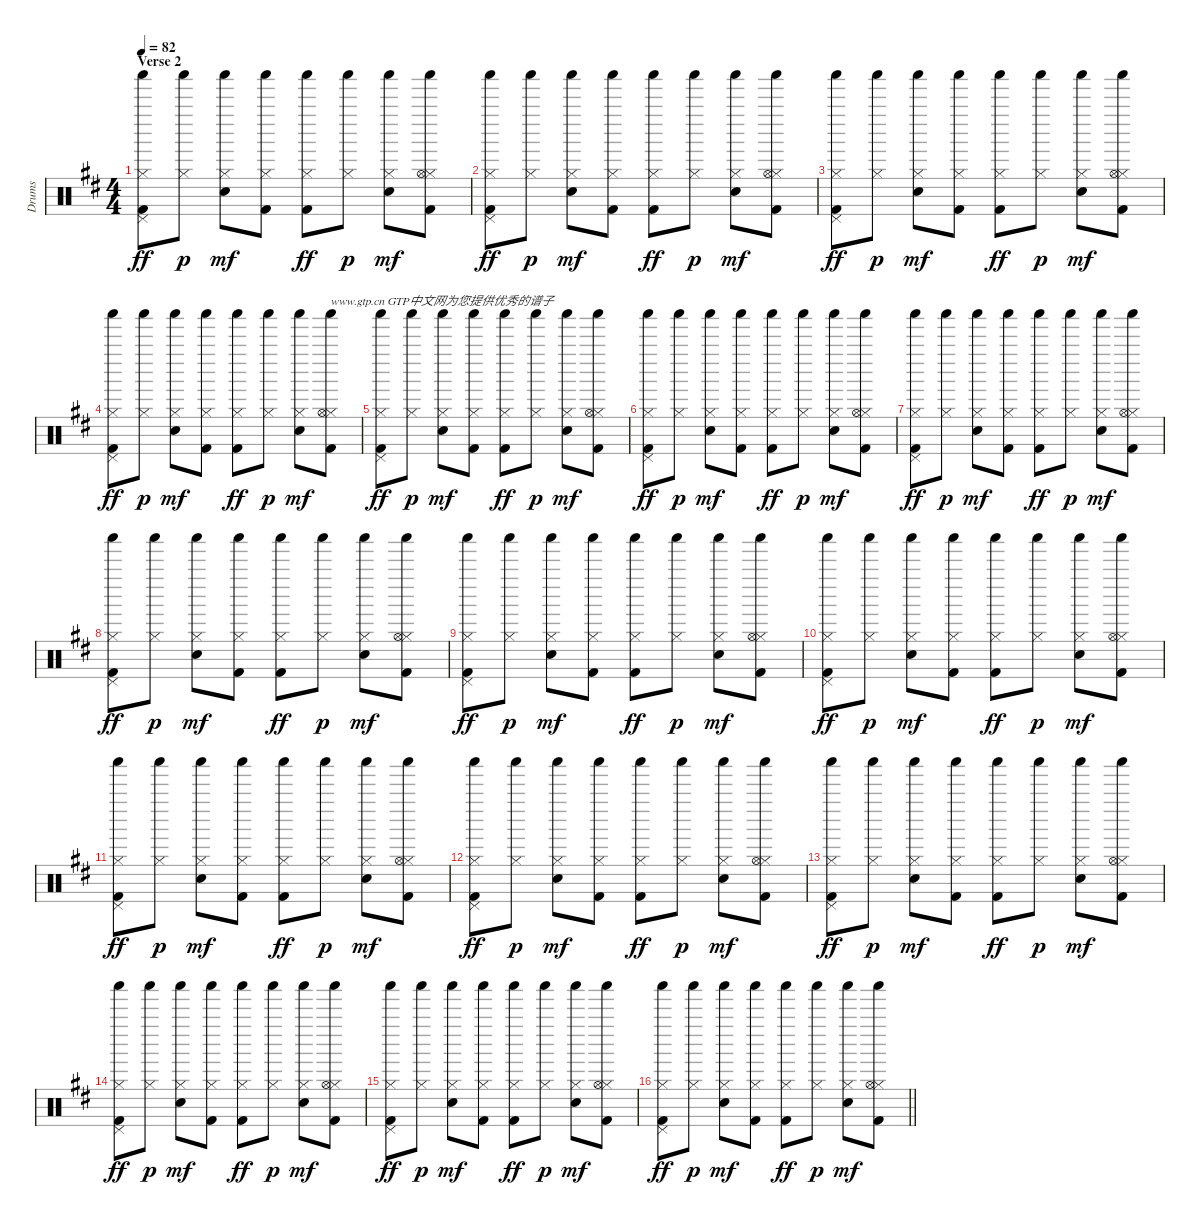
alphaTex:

\track ("Drums" "Drums") {instrument percussion}
\staff {score}
\articulation defaults
\ts (4 4)
\section ("" "Verse 2")
\tempo 82
\clef neutral
\ks d
("Hi-Hat (closed)" "Shaker (hit)" "Pedal Hi-Hat (hit)" "Kick (hit) 2").8{dy ff} ("Hi-Hat (closed)" "Shaker (hit)").8{dy p} ("Hi-Hat (closed)" "Electric Snare (hit)" "Shaker (hit)").8{dy mf} ("Hi-Hat (closed)" "Shaker (hit)" "Kick (hit) 2").8 ("Hi-Hat (closed)" "Shaker (hit)" "Kick (hit) 2").8{dy ff} ("Hi-Hat (closed)" "Shaker (hit)").8{dy p} ("Hi-Hat (closed)" "Electric Snare (hit)" "Shaker (hit)").8{dy mf} ("Hi-Hat (closed)" "Shaker (hit)" "Hi-Hat (open)" "Kick (hit) 2").8 |
("Hi-Hat (closed)" "Shaker (hit)" "Pedal Hi-Hat (hit)" "Kick (hit) 2").8{dy ff} ("Hi-Hat (closed)" "Shaker (hit)").8{dy p} ("Hi-Hat (closed)" "Electric Snare (hit)" "Shaker (hit)").8{dy mf} ("Hi-Hat (closed)" "Shaker (hit)" "Kick (hit) 2").8 ("Hi-Hat (closed)" "Shaker (hit)" "Kick (hit) 2").8{dy ff} ("Hi-Hat (closed)" "Shaker (hit)").8{dy p} ("Hi-Hat (closed)" "Electric Snare (hit)" "Shaker (hit)").8{dy mf} ("Hi-Hat (closed)" "Shaker (hit)" "Hi-Hat (open)" "Kick (hit) 2").8 |
("Hi-Hat (closed)" "Shaker (hit)" "Pedal Hi-Hat (hit)" "Kick (hit) 2").8{dy ff} ("Hi-Hat (closed)" "Shaker (hit)").8{dy p} ("Hi-Hat (closed)" "Electric Snare (hit)" "Shaker (hit)").8{dy mf} ("Hi-Hat (closed)" "Shaker (hit)" "Kick (hit) 2").8 ("Hi-Hat (closed)" "Shaker (hit)" "Kick (hit) 2").8{dy ff} ("Hi-Hat (closed)" "Shaker (hit)").8{dy p} ("Hi-Hat (closed)" "Electric Snare (hit)" "Shaker (hit)").8{dy mf} ("Hi-Hat (closed)" "Shaker (hit)" "Hi-Hat (open)" "Kick (hit) 2").8 |
("Hi-Hat (closed)" "Shaker (hit)" "Pedal Hi-Hat (hit)" "Kick (hit) 2").8{dy ff} ("Hi-Hat (closed)" "Shaker (hit)").8{dy p} ("Hi-Hat (closed)" "Electric Snare (hit)" "Shaker (hit)").8{dy mf} ("Hi-Hat (closed)" "Shaker (hit)" "Kick (hit) 2").8 ("Hi-Hat (closed)" "Shaker (hit)" "Kick (hit) 2").8{dy ff} ("Hi-Hat (closed)" "Shaker (hit)").8{dy p} ("Hi-Hat (closed)" "Electric Snare (hit)" "Shaker (hit)").8{dy mf} ("Hi-Hat (closed)" "Shaker (hit)" "Hi-Hat (open)" "Kick (hit) 2").8{txt "www.gtp.cn GTP中文网为您提供优秀的谱子"} |
("Hi-Hat (closed)" "Shaker (hit)" "Pedal Hi-Hat (hit)" "Kick (hit) 2").8{dy ff} ("Hi-Hat (closed)" "Shaker (hit)").8{dy p} ("Hi-Hat (closed)" "Electric Snare (hit)" "Shaker (hit)").8{dy mf} ("Hi-Hat (closed)" "Shaker (hit)" "Kick (hit) 2").8 ("Hi-Hat (closed)" "Shaker (hit)" "Kick (hit) 2").8{dy ff} ("Hi-Hat (closed)" "Shaker (hit)").8{dy p} ("Hi-Hat (closed)" "Electric Snare (hit)" "Shaker (hit)").8{dy mf} ("Hi-Hat (closed)" "Shaker (hit)" "Hi-Hat (open)" "Kick (hit) 2").8 |
("Hi-Hat (closed)" "Shaker (hit)" "Pedal Hi-Hat (hit)" "Kick (hit) 2").8{dy ff} ("Hi-Hat (closed)" "Shaker (hit)").8{dy p} ("Hi-Hat (closed)" "Electric Snare (hit)" "Shaker (hit)").8{dy mf} ("Hi-Hat (closed)" "Shaker (hit)" "Kick (hit) 2").8 ("Hi-Hat (closed)" "Shaker (hit)" "Kick (hit) 2").8{dy ff} ("Hi-Hat (closed)" "Shaker (hit)").8{dy p} ("Hi-Hat (closed)" "Electric Snare (hit)" "Shaker (hit)").8{dy mf} ("Hi-Hat (closed)" "Shaker (hit)" "Hi-Hat (open)" "Kick (hit) 2").8 |
("Hi-Hat (closed)" "Shaker (hit)" "Pedal Hi-Hat (hit)" "Kick (hit) 2").8{dy ff} ("Hi-Hat (closed)" "Shaker (hit)").8{dy p} ("Hi-Hat (closed)" "Electric Snare (hit)" "Shaker (hit)").8{dy mf} ("Hi-Hat (closed)" "Shaker (hit)" "Kick (hit) 2").8 ("Hi-Hat (closed)" "Shaker (hit)" "Kick (hit) 2").8{dy ff} ("Hi-Hat (closed)" "Shaker (hit)").8{dy p} ("Hi-Hat (closed)" "Electric Snare (hit)" "Shaker (hit)").8{dy mf} ("Hi-Hat (closed)" "Shaker (hit)" "Hi-Hat (open)" "Kick (hit) 2").8 |
("Hi-Hat (closed)" "Shaker (hit)" "Pedal Hi-Hat (hit)" "Kick (hit) 2").8{dy ff} ("Hi-Hat (closed)" "Shaker (hit)").8{dy p} ("Hi-Hat (closed)" "Electric Snare (hit)" "Shaker (hit)").8{dy mf} ("Hi-Hat (closed)" "Shaker (hit)" "Kick (hit) 2").8 ("Hi-Hat (closed)" "Shaker (hit)" "Kick (hit) 2").8{dy ff} ("Hi-Hat (closed)" "Shaker (hit)").8{dy p} ("Hi-Hat (closed)" "Electric Snare (hit)" "Shaker (hit)").8{dy mf} ("Hi-Hat (closed)" "Shaker (hit)" "Hi-Hat (open)" "Kick (hit) 2").8 |
("Hi-Hat (closed)" "Shaker (hit)" "Pedal Hi-Hat (hit)" "Kick (hit) 2").8{dy ff} ("Hi-Hat (closed)" "Shaker (hit)").8{dy p} ("Hi-Hat (closed)" "Electric Snare (hit)" "Shaker (hit)").8{dy mf} ("Hi-Hat (closed)" "Shaker (hit)" "Kick (hit) 2").8 ("Hi-Hat (closed)" "Shaker (hit)" "Kick (hit) 2").8{dy ff} ("Hi-Hat (closed)" "Shaker (hit)").8{dy p} ("Hi-Hat (closed)" "Electric Snare (hit)" "Shaker (hit)").8{dy mf} ("Hi-Hat (closed)" "Shaker (hit)" "Hi-Hat (open)" "Kick (hit) 2").8 |
("Hi-Hat (closed)" "Shaker (hit)" "Pedal Hi-Hat (hit)" "Kick (hit) 2").8{dy ff} ("Hi-Hat (closed)" "Shaker (hit)").8{dy p} ("Hi-Hat (closed)" "Electric Snare (hit)" "Shaker (hit)").8{dy mf} ("Hi-Hat (closed)" "Shaker (hit)" "Kick (hit) 2").8 ("Hi-Hat (closed)" "Shaker (hit)" "Kick (hit) 2").8{dy ff} ("Hi-Hat (closed)" "Shaker (hit)").8{dy p} ("Hi-Hat (closed)" "Electric Snare (hit)" "Shaker (hit)").8{dy mf} ("Hi-Hat (closed)" "Shaker (hit)" "Hi-Hat (open)" "Kick (hit) 2").8 |
("Hi-Hat (closed)" "Shaker (hit)" "Pedal Hi-Hat (hit)" "Kick (hit) 2").8{dy ff} ("Hi-Hat (closed)" "Shaker (hit)").8{dy p} ("Hi-Hat (closed)" "Electric Snare (hit)" "Shaker (hit)").8{dy mf} ("Hi-Hat (closed)" "Shaker (hit)" "Kick (hit) 2").8 ("Hi-Hat (closed)" "Shaker (hit)" "Kick (hit) 2").8{dy ff} ("Hi-Hat (closed)" "Shaker (hit)").8{dy p} ("Hi-Hat (closed)" "Electric Snare (hit)" "Shaker (hit)").8{dy mf} ("Hi-Hat (closed)" "Shaker (hit)" "Hi-Hat (open)" "Kick (hit) 2").8 |
("Hi-Hat (closed)" "Shaker (hit)" "Pedal Hi-Hat (hit)" "Kick (hit) 2").8{dy ff} ("Hi-Hat (closed)" "Shaker (hit)").8{dy p} ("Hi-Hat (closed)" "Electric Snare (hit)" "Shaker (hit)").8{dy mf} ("Hi-Hat (closed)" "Shaker (hit)" "Kick (hit) 2").8 ("Hi-Hat (closed)" "Shaker (hit)" "Kick (hit) 2").8{dy ff} ("Hi-Hat (closed)" "Shaker (hit)").8{dy p} ("Hi-Hat (closed)" "Electric Snare (hit)" "Shaker (hit)").8{dy mf} ("Hi-Hat (closed)" "Shaker (hit)" "Hi-Hat (open)" "Kick (hit) 2").8 |
("Hi-Hat (closed)" "Shaker (hit)" "Pedal Hi-Hat (hit)" "Kick (hit) 2").8{dy ff} ("Hi-Hat (closed)" "Shaker (hit)").8{dy p} ("Hi-Hat (closed)" "Electric Snare (hit)" "Shaker (hit)").8{dy mf} ("Hi-Hat (closed)" "Shaker (hit)" "Kick (hit) 2").8 ("Hi-Hat (closed)" "Shaker (hit)" "Kick (hit) 2").8{dy ff} ("Hi-Hat (closed)" "Shaker (hit)").8{dy p} ("Hi-Hat (closed)" "Electric Snare (hit)" "Shaker (hit)").8{dy mf} ("Hi-Hat (closed)" "Shaker (hit)" "Hi-Hat (open)" "Kick (hit) 2").8 |
("Hi-Hat (closed)" "Shaker (hit)" "Pedal Hi-Hat (hit)" "Kick (hit) 2").8{dy ff} ("Hi-Hat (closed)" "Shaker (hit)").8{dy p} ("Hi-Hat (closed)" "Electric Snare (hit)" "Shaker (hit)").8{dy mf} ("Hi-Hat (closed)" "Shaker (hit)" "Kick (hit) 2").8 ("Hi-Hat (closed)" "Shaker (hit)" "Kick (hit) 2").8{dy ff} ("Hi-Hat (closed)" "Shaker (hit)").8{dy p} ("Hi-Hat (closed)" "Electric Snare (hit)" "Shaker (hit)").8{dy mf} ("Hi-Hat (closed)" "Shaker (hit)" "Hi-Hat (open)" "Kick (hit) 2").8 |
("Hi-Hat (closed)" "Shaker (hit)" "Pedal Hi-Hat (hit)" "Kick (hit) 2").8{dy ff} ("Hi-Hat (closed)" "Shaker (hit)").8{dy p} ("Hi-Hat (closed)" "Electric Snare (hit)" "Shaker (hit)").8{dy mf} ("Hi-Hat (closed)" "Shaker (hit)" "Kick (hit) 2").8 ("Hi-Hat (closed)" "Shaker (hit)" "Kick (hit) 2").8{dy ff} ("Hi-Hat (closed)" "Shaker (hit)").8{dy p} ("Hi-Hat (closed)" "Electric Snare (hit)" "Shaker (hit)").8{dy mf} ("Hi-Hat (closed)" "Shaker (hit)" "Hi-Hat (open)" "Kick (hit) 2").8 |
\barLineRight lightlight
("Hi-Hat (closed)" "Shaker (hit)" "Pedal Hi-Hat (hit)" "Kick (hit) 2").8{dy ff} ("Hi-Hat (closed)" "Shaker (hit)").8{dy p} ("Hi-Hat (closed)" "Electric Snare (hit)" "Shaker (hit)").8{dy mf} ("Hi-Hat (closed)" "Shaker (hit)" "Kick (hit) 2").8 ("Hi-Hat (closed)" "Shaker (hit)" "Kick (hit) 2").8{dy ff} ("Hi-Hat (closed)" "Shaker (hit)").8{dy p} ("Hi-Hat (closed)" "Electric Snare (hit)" "Shaker (hit)").8{dy mf} ("Hi-Hat (closed)" "Shaker (hit)" "Hi-Hat (open)" "Kick (hit) 2").8
